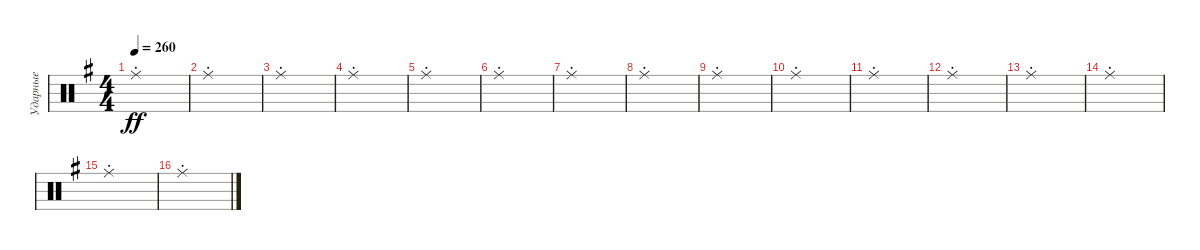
\track ("Ударные" "Ударные") {instrument percussion}
\staff {score}
\articulation defaults
\ts (4 4)
\tempo 260
\clef neutral
\ks g "Ride (middle)"{st}.1{dy ff}
|
"Ride (middle)"{st}.1 |
"Ride (middle)"{st}.1 |
"Ride (middle)"{st}.1 |
"Ride (middle)"{st}.1 |
"Ride (middle)"{st}.1 |
"Ride (middle)"{st}.1 |
"Ride (middle)"{st}.1 |
"Ride (middle)"{st}.1 |
"Ride (middle)"{st}.1 |
"Ride (middle)"{st}.1 |
"Ride (middle)"{st}.1 |
"Ride (middle)"{st}.1 |
"Ride (middle)"{st}.1 |
"Ride (middle)"{st}.1 |
"Ride (middle)"{st}.1
